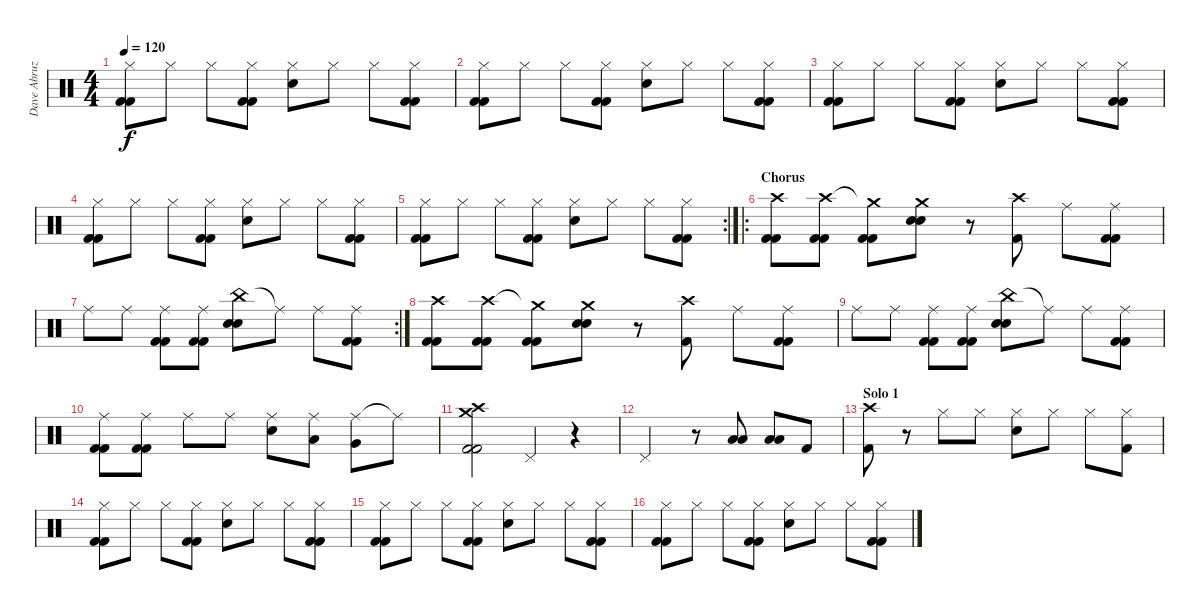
\track ("Dave Abruzzese" "Dave Abruz") {instrument percussion}
\staff {score}
\articulation defaults
\ts (4 4)
\tempo 120
\clef neutral
\ks c
("Hi-Hat (closed)" "Kick (hit) 2" "Kick (hit) 2").8{dy f} "Hi-Hat (closed)".8 "Hi-Hat (closed)".8 ("Hi-Hat (closed)" "Kick (hit) 2" "Kick (hit) 2").8 ("Hi-Hat (closed)" "Electric Snare (hit)").8 "Hi-Hat (closed)".8 "Hi-Hat (closed)".8 ("Hi-Hat (closed)" "Kick (hit) 2" "Kick (hit) 2").8 |
("Hi-Hat (closed)" "Kick (hit) 2" "Kick (hit) 2").8 "Hi-Hat (closed)".8 "Hi-Hat (closed)".8 ("Hi-Hat (closed)" "Kick (hit) 2" "Kick (hit) 2").8 ("Hi-Hat (closed)" "Electric Snare (hit)").8 "Hi-Hat (closed)".8 "Hi-Hat (closed)".8 ("Hi-Hat (closed)" "Kick (hit) 2" "Kick (hit) 2").8 |
("Hi-Hat (closed)" "Kick (hit) 2" "Kick (hit) 2").8 "Hi-Hat (closed)".8 "Hi-Hat (closed)".8 ("Hi-Hat (closed)" "Kick (hit) 2" "Kick (hit) 2").8 ("Hi-Hat (closed)" "Electric Snare (hit)").8 "Hi-Hat (closed)".8 "Hi-Hat (closed)".8 ("Hi-Hat (closed)" "Kick (hit) 2" "Kick (hit) 2").8 |
("Hi-Hat (closed)" "Kick (hit) 2" "Kick (hit) 2").8 "Hi-Hat (closed)".8 "Hi-Hat (closed)".8 ("Hi-Hat (closed)" "Kick (hit) 2" "Kick (hit) 2").8 ("Hi-Hat (closed)" "Electric Snare (hit)").8 "Hi-Hat (closed)".8 "Hi-Hat (closed)".8 ("Hi-Hat (closed)" "Kick (hit) 2" "Kick (hit) 2").8 |
\rc 2
("Hi-Hat (closed)" "Kick (hit) 2" "Kick (hit) 2").8 "Hi-Hat (closed)".8 "Hi-Hat (closed)".8 ("Hi-Hat (closed)" "Kick (hit) 2" "Kick (hit) 2").8 ("Hi-Hat (closed)" "Electric Snare (hit)").8 "Hi-Hat (closed)".8 "Hi-Hat (closed)".8 ("Hi-Hat (closed)" "Kick (hit) 2" "Kick (hit) 2").8 |
\ro
\section ("" "Chorus")
("Crash high (hit)" "Kick (hit) 2" "Kick (hit) 2").8 ("Crash high (hit)" "Kick (hit) 2" "Kick (hit) 2").8 ("Crash medium (hit)"{t} "Kick (hit) 2" "Kick (hit) 2").8 ("Crash medium (hit)" "Electric Snare (hit)" "Electric Snare (hit)").8 r.8 ("Crash high (hit)" "Kick (hit) 2").8 "Ride (middle)".8 ("Ride (middle)" "Kick (hit) 2" "Kick (hit) 2").8 |
\rc 2 "Ride (middle)".8 "Ride (middle)".8
("Ride (middle)" "Kick (hit) 2" "Kick (hit) 2").8 ("Ride (middle)" "Kick (hit) 2" "Kick (hit) 2").8 ("China (hit)" "Electric Snare (hit)" "Electric Snare (hit)").8 "Ride (middle)"{t}.8 "Ride (middle)".8 ("Ride (middle)" "Kick (hit) 2" "Kick (hit) 2").8 |
("Crash high (hit)" "Kick (hit) 2" "Kick (hit) 2").8 ("Crash high (hit)" "Kick (hit) 2" "Kick (hit) 2").8 ("Crash medium (hit)"{t} "Kick (hit) 2" "Kick (hit) 2").8 ("Crash medium (hit)" "Electric Snare (hit)" "Electric Snare (hit)").8 r.8 ("Crash high (hit)" "Kick (hit) 2").8 "Ride (middle)".8 ("Ride (middle)" "Kick (hit) 2" "Kick (hit) 2").8 |
"Ride (middle)".8 "Ride (middle)".8 ("Ride (middle)" "Kick (hit) 2" "Kick (hit) 2").8 ("Ride (middle)" "Kick (hit) 2" "Kick (hit) 2").8 ("China (hit)" "Electric Snare (hit)" "Electric Snare (hit)").8 "Ride (middle)"{t}.8 "Ride (middle)".8 ("Ride (middle)" "Kick (hit) 2" "Kick (hit) 2").8 |
("Ride (middle)" "Kick (hit) 2" "Kick (hit) 2").8 ("Ride (middle)" "Kick (hit) 2" "Kick (hit) 2").8 "Ride (middle)".8 "Ride (middle)".8 ("Ride (middle)" "Electric Snare (hit)").8 ("Ride (middle)" "Low Tom (hit)").8 ("Ride (middle)" "Very Low Tom (hit)").8 "Ride (middle)"{t}.8 |
("Crash high (hit)" "Crash medium (hit)" "Kick (hit) 2" "Kick (hit) 2").2 "Pedal Hi-Hat (hit)".4 r.4 |
"Pedal Hi-Hat (hit)".2 r.8 ("Low Tom (hit)" "Low Tom (hit)").8 ("Low Tom (hit)" "Low Tom (hit)").8 "Kick (hit) 2".8 |
\section ("" "Solo 1")
("Crash high (hit)" "Kick (hit) 2").8 r.8 "Hi-Hat (closed)".8 "Hi-Hat (closed)".8 ("Hi-Hat (closed)" "Electric Snare (hit)").8 "Hi-Hat (closed)".8 "Hi-Hat (closed)".8 ("Hi-Hat (closed)" "Kick (hit) 2").8 |
("Hi-Hat (closed)" "Kick (hit) 2" "Kick (hit) 2").8 "Hi-Hat (closed)".8 "Hi-Hat (closed)".8 ("Hi-Hat (closed)" "Kick (hit) 2" "Kick (hit) 2").8 ("Hi-Hat (closed)" "Electric Snare (hit)").8 "Hi-Hat (closed)".8 "Hi-Hat (closed)".8 ("Hi-Hat (closed)" "Kick (hit) 2" "Kick (hit) 2").8 |
("Hi-Hat (closed)" "Kick (hit) 2" "Kick (hit) 2").8 "Hi-Hat (closed)".8 "Hi-Hat (closed)".8 ("Hi-Hat (closed)" "Kick (hit) 2" "Kick (hit) 2").8 ("Hi-Hat (closed)" "Electric Snare (hit)").8 "Hi-Hat (closed)".8 "Hi-Hat (closed)".8 ("Hi-Hat (closed)" "Kick (hit) 2" "Kick (hit) 2").8 |
("Hi-Hat (closed)" "Kick (hit) 2" "Kick (hit) 2").8 "Hi-Hat (closed)".8 "Hi-Hat (closed)".8 ("Hi-Hat (closed)" "Kick (hit) 2" "Kick (hit) 2").8 ("Hi-Hat (closed)" "Electric Snare (hit)").8 "Hi-Hat (closed)".8 "Hi-Hat (closed)".8 ("Hi-Hat (closed)" "Kick (hit) 2" "Kick (hit) 2").8
